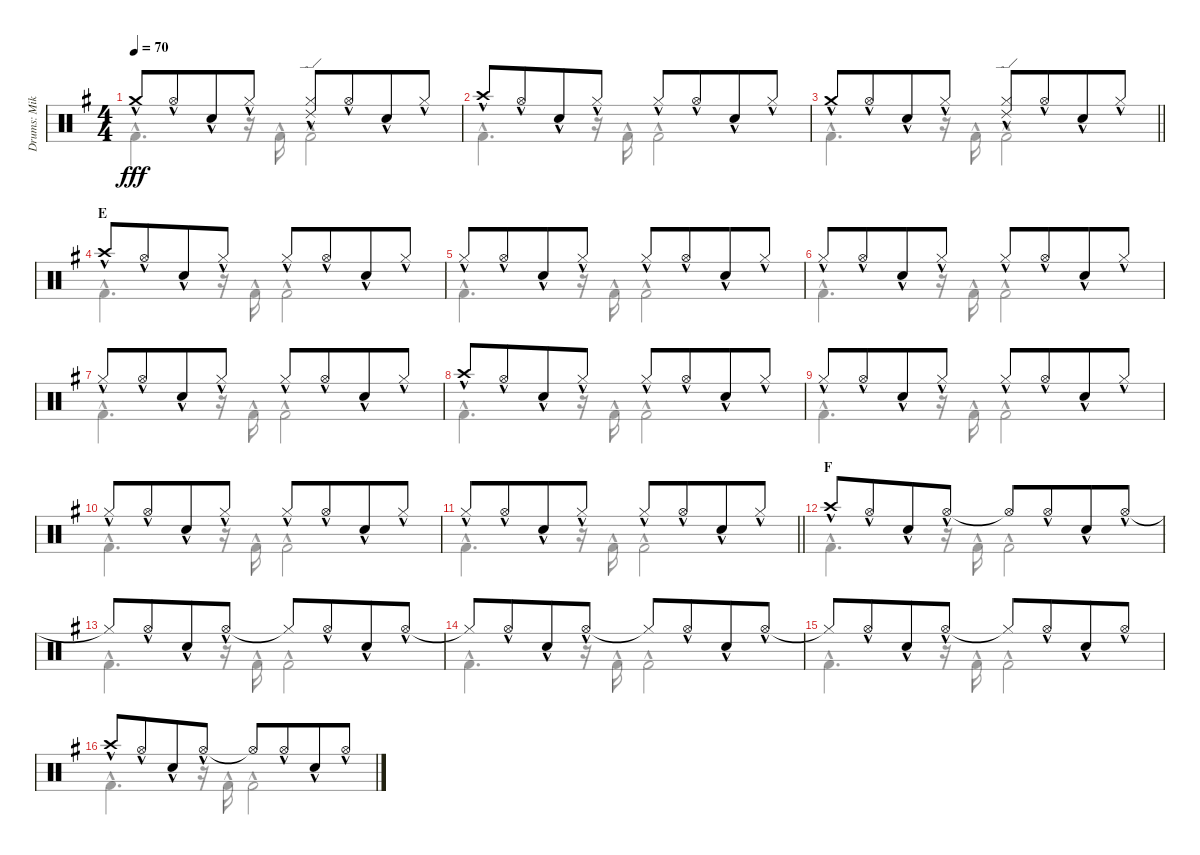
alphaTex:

\track ("Drums: Mike" "Drums: Mik") {instrument percussion}
\staff {score}
\articulation defaults
\voice
\ts (4 4)
\tempo 70
\clef neutral
\ks g "Crash medium (hit)"{hac}.8{dy fff} "Hi-Hat (open)"{hac}.8{beam merge} "Snare (hit) 2"{hac}.8 "Hi-Hat (closed)"{hac}.8
("Ride (edge) 2"{hac} "Hi-Hat (closed)"{hac}).8 "Hi-Hat (open)"{hac}.8{beam merge} "Snare (hit) 2"{hac}.8 "Hi-Hat (closed)"{hac}.8 |
"Crash high (hit)"{hac}.8 "Hi-Hat (open)"{hac}.8{beam merge} "Snare (hit) 2"{hac}.8 "Hi-Hat (closed)"{hac}.8 "Hi-Hat (closed)"{hac}.8 "Hi-Hat (open)"{hac}.8{beam merge} "Snare (hit) 2"{hac}.8 "Hi-Hat (closed)"{hac}.8 |
\barLineRight lightlight "Crash medium (hit)"{hac}.8 "Hi-Hat (open)"{hac}.8{beam merge} "Snare (hit) 2"{hac}.8 "Hi-Hat (closed)"{hac}.8
("Ride (edge) 2"{hac} "Hi-Hat (closed)"{hac}).8 "Hi-Hat (open)"{hac}.8{beam merge} "Snare (hit) 2"{hac}.8 "Hi-Hat (closed)"{hac}.8 |
\section ("" "E")
"Crash high (hit)"{hac}.8 "Hi-Hat (open)"{hac}.8{beam merge} "Snare (hit) 2"{hac}.8 "Hi-Hat (closed)"{hac}.8 "Hi-Hat (closed)"{hac}.8 "Hi-Hat (open)"{hac}.8{beam merge} "Snare (hit) 2"{hac}.8 "Hi-Hat (closed)"{hac}.8 |
"Hi-Hat (closed)"{hac}.8 "Hi-Hat (open)"{hac}.8{beam merge} "Snare (hit) 2"{hac}.8 "Hi-Hat (closed)"{hac}.8 "Hi-Hat (closed)"{hac}.8 "Hi-Hat (open)"{hac}.8{beam merge} "Snare (hit) 2"{hac}.8 "Hi-Hat (closed)"{hac}.8 |
"Hi-Hat (closed)"{hac}.8 "Hi-Hat (open)"{hac}.8{beam merge} "Snare (hit) 2"{hac}.8 "Hi-Hat (closed)"{hac}.8 "Hi-Hat (closed)"{hac}.8 "Hi-Hat (open)"{hac}.8{beam merge} "Snare (hit) 2"{hac}.8 "Hi-Hat (closed)"{hac}.8 |
"Hi-Hat (closed)"{hac}.8 "Hi-Hat (open)"{hac}.8{beam merge} "Snare (hit) 2"{hac}.8 "Hi-Hat (closed)"{hac}.8 "Hi-Hat (closed)"{hac}.8 "Hi-Hat (open)"{hac}.8{beam merge} "Snare (hit) 2"{hac}.8 "Hi-Hat (closed)"{hac}.8 |
"Crash high (hit)"{hac}.8 "Hi-Hat (open)"{hac}.8{beam merge} "Snare (hit) 2"{hac}.8 "Hi-Hat (closed)"{hac}.8 "Hi-Hat (closed)"{hac}.8 "Hi-Hat (open)"{hac}.8{beam merge} "Snare (hit) 2"{hac}.8 "Hi-Hat (closed)"{hac}.8 |
"Hi-Hat (closed)"{hac}.8 "Hi-Hat (open)"{hac}.8{beam merge} "Snare (hit) 2"{hac}.8 "Hi-Hat (closed)"{hac}.8 "Hi-Hat (closed)"{hac}.8 "Hi-Hat (open)"{hac}.8{beam merge} "Snare (hit) 2"{hac}.8 "Hi-Hat (closed)"{hac}.8 |
"Hi-Hat (closed)"{hac}.8 "Hi-Hat (open)"{hac}.8{beam merge} "Snare (hit) 2"{hac}.8 "Hi-Hat (closed)"{hac}.8 "Hi-Hat (closed)"{hac}.8 "Hi-Hat (open)"{hac}.8{beam merge} "Snare (hit) 2"{hac}.8 "Hi-Hat (closed)"{hac}.8 |
\barLineRight lightlight "Hi-Hat (closed)"{hac}.8 "Hi-Hat (open)"{hac}.8{beam merge} "Snare (hit) 2"{hac}.8 "Hi-Hat (closed)"{hac}.8 "Hi-Hat (closed)"{hac}.8 "Hi-Hat (open)"{hac}.8{beam merge} "Snare (hit) 2"{hac}.8 "Hi-Hat (closed)"{hac}.8
|
\section ("" "F")
"Crash high (hit)"{hac}.8 "Hi-Hat (open)"{hac}.8{beam merge} "Snare (hit) 2"{hac}.8 "Hi-Hat (open)"{hac}.8 "Hi-Hat (open)"{t}.8 "Hi-Hat (open)"{hac}.8{beam merge} "Snare (hit) 2"{hac}.8 "Hi-Hat (open)"{hac}.8 |
"Hi-Hat (closed)"{t}.8 "Hi-Hat (open)"{hac}.8{beam merge} "Snare (hit) 2"{hac}.8 "Hi-Hat (open)"{hac}.8 "Hi-Hat (closed)"{t}.8 "Hi-Hat (open)"{hac}.8{beam merge} "Snare (hit) 2"{hac}.8 "Hi-Hat (open)"{hac}.8 |
"Hi-Hat (closed)"{t}.8 "Hi-Hat (open)"{hac}.8{beam merge} "Snare (hit) 2"{hac}.8 "Hi-Hat (open)"{hac}.8 "Hi-Hat (closed)"{t}.8 "Hi-Hat (open)"{hac}.8{beam merge} "Snare (hit) 2"{hac}.8 "Hi-Hat (open)"{hac}.8 |
"Hi-Hat (closed)"{t}.8 "Hi-Hat (open)"{hac}.8{beam merge} "Snare (hit) 2"{hac}.8 "Hi-Hat (open)"{hac}.8 "Hi-Hat (closed)"{t}.8 "Hi-Hat (open)"{hac}.8{beam merge} "Snare (hit) 2"{hac}.8 "Hi-Hat (open)"{hac}.8 |
"Crash high (hit)"{hac}.8 "Hi-Hat (open)"{hac}.8{beam merge} "Snare (hit) 2"{hac}.8 "Hi-Hat (open)"{hac}.8 "Hi-Hat (open)"{t}.8 "Hi-Hat (open)"{hac}.8{beam merge} "Snare (hit) 2"{hac}.8 "Hi-Hat (open)"{hac}.8
\voice
\clef neutral
\ottava regular
\simile none
\ks g "Kick (hit) 2"{hac}.4{d dy fff}
r.16 "Kick (hit) 2"{hac}.16 "Kick (hit) 2"{hac}.2 |
"Kick (hit) 2"{hac}.4{d} r.16 "Kick (hit) 2"{hac}.16 "Kick (hit) 2"{hac}.2 |
\barLineRight lightlight "Kick (hit) 2"{hac}.4{d}
r.16 "Kick (hit) 2"{hac}.16 "Kick (hit) 2"{hac}.2 |
"Kick (hit) 2"{hac}.4{d} r.16 "Kick (hit) 2"{hac}.16 "Kick (hit) 2"{hac}.2 |
"Kick (hit) 2"{hac}.4{d} r.16 "Kick (hit) 2"{hac}.16 "Kick (hit) 2"{hac}.2 |
"Kick (hit) 2"{hac}.4{d} r.16 "Kick (hit) 2"{hac}.16 "Kick (hit) 2"{hac}.2 |
"Kick (hit) 2"{hac}.4{d} r.16 "Kick (hit) 2"{hac}.16 "Kick (hit) 2"{hac}.2 |
"Kick (hit) 2"{hac}.4{d} r.16 "Kick (hit) 2"{hac}.16 "Kick (hit) 2"{hac}.2 |
"Kick (hit) 2"{hac}.4{d} r.16 "Kick (hit) 2"{hac}.16 "Kick (hit) 2"{hac}.2 |
"Kick (hit) 2"{hac}.4{d} r.16 "Kick (hit) 2"{hac}.16 "Kick (hit) 2"{hac}.2 |
\barLineRight lightlight "Kick (hit) 2"{hac}.4{d}
r.16 "Kick (hit) 2"{hac}.16 "Kick (hit) 2"{hac}.2 |
"Kick (hit) 2"{hac}.4{d} r.16 "Kick (hit) 2"{hac}.16 "Kick (hit) 2"{hac}.2 |
"Kick (hit) 2"{hac}.4{d} r.16 "Kick (hit) 2"{hac}.16 "Kick (hit) 2"{hac}.2 |
"Kick (hit) 2"{hac}.4{d} r.16 "Kick (hit) 2"{hac}.16 "Kick (hit) 2"{hac}.2 |
"Kick (hit) 2"{hac}.4{d} r.16 "Kick (hit) 2"{hac}.16 "Kick (hit) 2"{hac}.2 |
"Kick (hit) 2"{hac}.4{d} r.16 "Kick (hit) 2"{hac}.16 "Kick (hit) 2"{hac}.2
